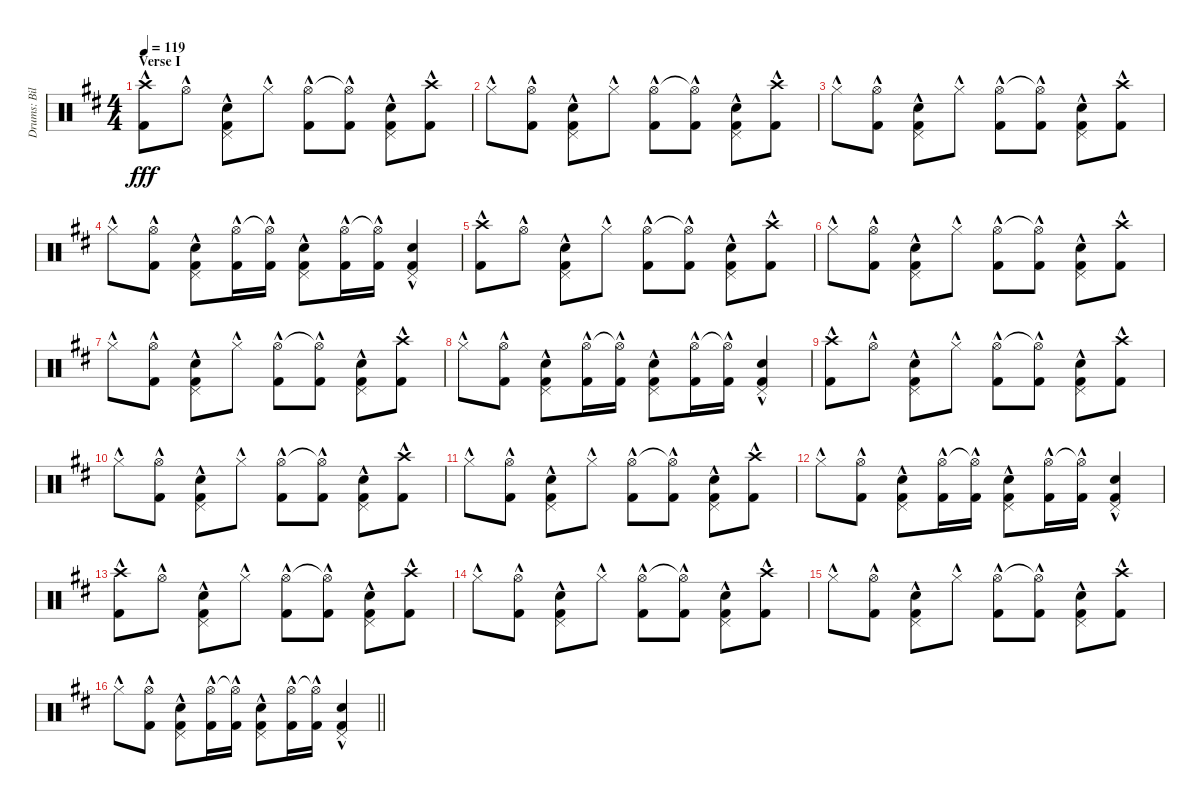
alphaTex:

\track ("Drums: Bill" "Drums: Bil") {instrument percussion}
\staff {score}
\articulation defaults
\ts (4 4)
\section ("" "Verse I")
\tempo 119
\clef neutral
\ks d
("Crash high (hit)"{hac} "Kick (hit) 2"{hac}).8{dy fff} "Hi-Hat (open)"{hac}.8 ("Pedal Hi-Hat (hit)"{hac} "Snare (hit) 2"{hac} "Kick (hit) 2"{hac}).8 "Hi-Hat (closed)"{hac}.8 ("Hi-Hat (open)"{hac} "Kick (hit) 2"{hac}).8 ("Hi-Hat (open)"{t} "Kick (hit) 2"{hac}).8 ("Pedal Hi-Hat (hit)"{hac} "Snare (hit) 2"{hac} "Kick (hit) 2"{hac}).8 ("Crash high (hit)"{hac} "Kick (hit) 2"{hac}).8 |
"Hi-Hat (closed)"{hac}.8 ("Hi-Hat (open)"{hac} "Kick (hit) 2"{hac}).8 ("Pedal Hi-Hat (hit)"{hac} "Snare (hit) 2"{hac} "Kick (hit) 2"{hac}).8 "Hi-Hat (closed)"{hac}.8 ("Hi-Hat (open)"{hac} "Kick (hit) 2"{hac}).8 ("Hi-Hat (open)"{t} "Kick (hit) 2"{hac}).8 ("Pedal Hi-Hat (hit)"{hac} "Snare (hit) 2"{hac} "Kick (hit) 2"{hac}).8 ("Crash high (hit)"{hac} "Kick (hit) 2"{hac}).8 |
"Hi-Hat (closed)"{hac}.8 ("Hi-Hat (open)"{hac} "Kick (hit) 2"{hac}).8 ("Pedal Hi-Hat (hit)"{hac} "Snare (hit) 2"{hac} "Kick (hit) 2"{hac}).8 "Hi-Hat (closed)"{hac}.8 ("Hi-Hat (open)"{hac} "Kick (hit) 2"{hac}).8 ("Hi-Hat (open)"{t} "Kick (hit) 2"{hac}).8 ("Pedal Hi-Hat (hit)"{hac} "Snare (hit) 2"{hac} "Kick (hit) 2"{hac}).8 ("Crash high (hit)"{hac} "Kick (hit) 2"{hac}).8 |
"Hi-Hat (closed)"{hac}.8 ("Hi-Hat (open)"{hac} "Kick (hit) 2"{hac}).8 ("Pedal Hi-Hat (hit)"{hac} "Snare (hit) 2"{hac} "Kick (hit) 2"{hac}).8 ("Hi-Hat (open)"{hac} "Kick (hit) 2"{hac}).16 ("Hi-Hat (open)"{t} "Kick (hit) 2"{hac}).16 ("Pedal Hi-Hat (hit)"{hac} "Snare (hit) 2"{hac} "Kick (hit) 2"{hac}).8 ("Hi-Hat (open)"{hac} "Kick (hit) 2"{hac}).16 ("Hi-Hat (open)"{t} "Kick (hit) 2"{hac}).16 ("Pedal Hi-Hat (hit)"{hac} "Snare (hit) 2"{hac} "Kick (hit) 2"{hac}).4 |
("Crash high (hit)"{hac} "Kick (hit) 2"{hac}).8 "Hi-Hat (open)"{hac}.8 ("Pedal Hi-Hat (hit)"{hac} "Snare (hit) 2"{hac} "Kick (hit) 2"{hac}).8 "Hi-Hat (closed)"{hac}.8 ("Hi-Hat (open)"{hac} "Kick (hit) 2"{hac}).8 ("Hi-Hat (open)"{t} "Kick (hit) 2"{hac}).8 ("Pedal Hi-Hat (hit)"{hac} "Snare (hit) 2"{hac} "Kick (hit) 2"{hac}).8 ("Crash high (hit)"{hac} "Kick (hit) 2"{hac}).8 |
"Hi-Hat (closed)"{hac}.8 ("Hi-Hat (open)"{hac} "Kick (hit) 2"{hac}).8 ("Pedal Hi-Hat (hit)"{hac} "Snare (hit) 2"{hac} "Kick (hit) 2"{hac}).8 "Hi-Hat (closed)"{hac}.8 ("Hi-Hat (open)"{hac} "Kick (hit) 2"{hac}).8 ("Hi-Hat (open)"{t} "Kick (hit) 2"{hac}).8 ("Pedal Hi-Hat (hit)"{hac} "Snare (hit) 2"{hac} "Kick (hit) 2"{hac}).8 ("Crash high (hit)"{hac} "Kick (hit) 2"{hac}).8 |
"Hi-Hat (closed)"{hac}.8 ("Hi-Hat (open)"{hac} "Kick (hit) 2"{hac}).8 ("Pedal Hi-Hat (hit)"{hac} "Snare (hit) 2"{hac} "Kick (hit) 2"{hac}).8 "Hi-Hat (closed)"{hac}.8 ("Hi-Hat (open)"{hac} "Kick (hit) 2"{hac}).8 ("Hi-Hat (open)"{t} "Kick (hit) 2"{hac}).8 ("Pedal Hi-Hat (hit)"{hac} "Snare (hit) 2"{hac} "Kick (hit) 2"{hac}).8 ("Crash high (hit)"{hac} "Kick (hit) 2"{hac}).8 |
"Hi-Hat (closed)"{hac}.8 ("Hi-Hat (open)"{hac} "Kick (hit) 2"{hac}).8 ("Pedal Hi-Hat (hit)"{hac} "Snare (hit) 2"{hac} "Kick (hit) 2"{hac}).8 ("Hi-Hat (open)"{hac} "Kick (hit) 2"{hac}).16 ("Hi-Hat (open)"{t} "Kick (hit) 2"{hac}).16 ("Pedal Hi-Hat (hit)"{hac} "Snare (hit) 2"{hac} "Kick (hit) 2"{hac}).8 ("Hi-Hat (open)"{hac} "Kick (hit) 2"{hac}).16 ("Hi-Hat (open)"{t} "Kick (hit) 2"{hac}).16 ("Pedal Hi-Hat (hit)"{hac} "Snare (hit) 2"{hac} "Kick (hit) 2"{hac}).4 |
("Crash high (hit)"{hac} "Kick (hit) 2"{hac}).8 "Hi-Hat (open)"{hac}.8 ("Pedal Hi-Hat (hit)"{hac} "Snare (hit) 2"{hac} "Kick (hit) 2"{hac}).8 "Hi-Hat (closed)"{hac}.8 ("Hi-Hat (open)"{hac} "Kick (hit) 2"{hac}).8 ("Hi-Hat (open)"{t} "Kick (hit) 2"{hac}).8 ("Pedal Hi-Hat (hit)"{hac} "Snare (hit) 2"{hac} "Kick (hit) 2"{hac}).8 ("Crash high (hit)"{hac} "Kick (hit) 2"{hac}).8 |
"Hi-Hat (closed)"{hac}.8 ("Hi-Hat (open)"{hac} "Kick (hit) 2"{hac}).8 ("Pedal Hi-Hat (hit)"{hac} "Snare (hit) 2"{hac} "Kick (hit) 2"{hac}).8 "Hi-Hat (closed)"{hac}.8 ("Hi-Hat (open)"{hac} "Kick (hit) 2"{hac}).8 ("Hi-Hat (open)"{t} "Kick (hit) 2"{hac}).8 ("Pedal Hi-Hat (hit)"{hac} "Snare (hit) 2"{hac} "Kick (hit) 2"{hac}).8 ("Crash high (hit)"{hac} "Kick (hit) 2"{hac}).8 |
"Hi-Hat (closed)"{hac}.8 ("Hi-Hat (open)"{hac} "Kick (hit) 2"{hac}).8 ("Pedal Hi-Hat (hit)"{hac} "Snare (hit) 2"{hac} "Kick (hit) 2"{hac}).8 "Hi-Hat (closed)"{hac}.8 ("Hi-Hat (open)"{hac} "Kick (hit) 2"{hac}).8 ("Hi-Hat (open)"{t} "Kick (hit) 2"{hac}).8 ("Pedal Hi-Hat (hit)"{hac} "Snare (hit) 2"{hac} "Kick (hit) 2"{hac}).8 ("Crash high (hit)"{hac} "Kick (hit) 2"{hac}).8 |
"Hi-Hat (closed)"{hac}.8 ("Hi-Hat (open)"{hac} "Kick (hit) 2"{hac}).8 ("Pedal Hi-Hat (hit)"{hac} "Snare (hit) 2"{hac} "Kick (hit) 2"{hac}).8 ("Hi-Hat (open)"{hac} "Kick (hit) 2"{hac}).16 ("Hi-Hat (open)"{t} "Kick (hit) 2"{hac}).16 ("Pedal Hi-Hat (hit)"{hac} "Snare (hit) 2"{hac} "Kick (hit) 2"{hac}).8 ("Hi-Hat (open)"{hac} "Kick (hit) 2"{hac}).16 ("Hi-Hat (open)"{t} "Kick (hit) 2"{hac}).16 ("Pedal Hi-Hat (hit)"{hac} "Snare (hit) 2"{hac} "Kick (hit) 2"{hac}).4 |
("Crash high (hit)"{hac} "Kick (hit) 2"{hac}).8 "Hi-Hat (open)"{hac}.8 ("Pedal Hi-Hat (hit)"{hac} "Snare (hit) 2"{hac} "Kick (hit) 2"{hac}).8 "Hi-Hat (closed)"{hac}.8 ("Hi-Hat (open)"{hac} "Kick (hit) 2"{hac}).8 ("Hi-Hat (open)"{t} "Kick (hit) 2"{hac}).8 ("Pedal Hi-Hat (hit)"{hac} "Snare (hit) 2"{hac} "Kick (hit) 2"{hac}).8 ("Crash high (hit)"{hac} "Kick (hit) 2"{hac}).8 |
"Hi-Hat (closed)"{hac}.8 ("Hi-Hat (open)"{hac} "Kick (hit) 2"{hac}).8 ("Pedal Hi-Hat (hit)"{hac} "Snare (hit) 2"{hac} "Kick (hit) 2"{hac}).8 "Hi-Hat (closed)"{hac}.8 ("Hi-Hat (open)"{hac} "Kick (hit) 2"{hac}).8 ("Hi-Hat (open)"{t} "Kick (hit) 2"{hac}).8 ("Pedal Hi-Hat (hit)"{hac} "Snare (hit) 2"{hac} "Kick (hit) 2"{hac}).8 ("Crash high (hit)"{hac} "Kick (hit) 2"{hac}).8 |
"Hi-Hat (closed)"{hac}.8 ("Hi-Hat (open)"{hac} "Kick (hit) 2"{hac}).8 ("Pedal Hi-Hat (hit)"{hac} "Snare (hit) 2"{hac} "Kick (hit) 2"{hac}).8 "Hi-Hat (closed)"{hac}.8 ("Hi-Hat (open)"{hac} "Kick (hit) 2"{hac}).8 ("Hi-Hat (open)"{t} "Kick (hit) 2"{hac}).8 ("Pedal Hi-Hat (hit)"{hac} "Snare (hit) 2"{hac} "Kick (hit) 2"{hac}).8 ("Crash high (hit)"{hac} "Kick (hit) 2"{hac}).8 |
\barLineRight lightlight "Hi-Hat (closed)"{hac}.8
("Hi-Hat (open)"{hac} "Kick (hit) 2"{hac}).8 ("Pedal Hi-Hat (hit)"{hac} "Snare (hit) 2"{hac} "Kick (hit) 2"{hac}).8 ("Hi-Hat (open)"{hac} "Kick (hit) 2"{hac}).16 ("Hi-Hat (open)"{t} "Kick (hit) 2"{hac}).16 ("Pedal Hi-Hat (hit)"{hac} "Snare (hit) 2"{hac} "Kick (hit) 2"{hac}).8 ("Hi-Hat (open)"{hac} "Kick (hit) 2"{hac}).16 ("Hi-Hat (open)"{t} "Kick (hit) 2"{hac}).16 ("Pedal Hi-Hat (hit)"{hac} "Snare (hit) 2"{hac} "Kick (hit) 2"{hac}).4
